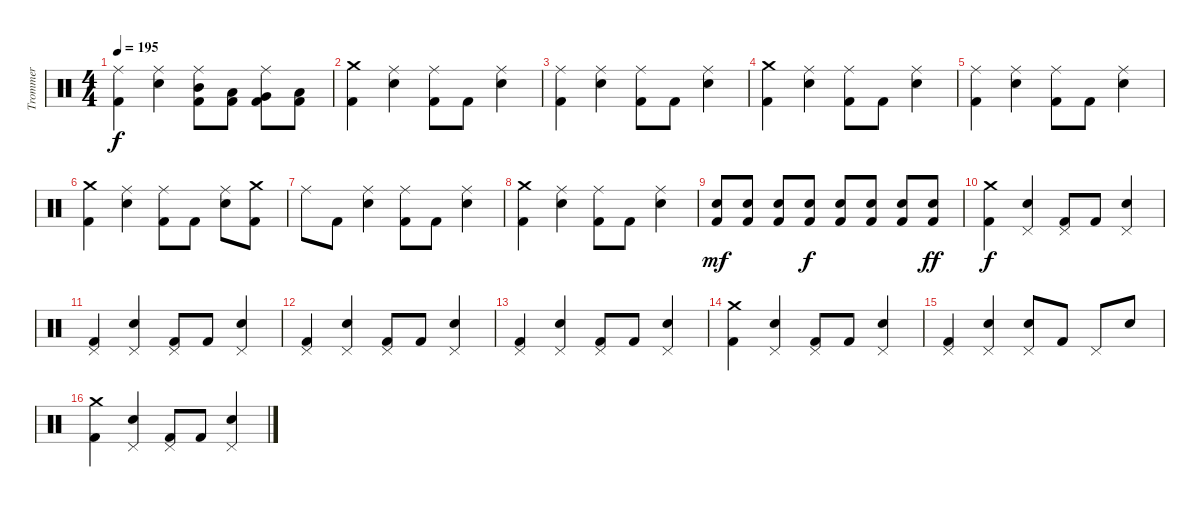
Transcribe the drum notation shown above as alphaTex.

\track ("Trommer" "Trommer") {instrument percussion}
\staff {score}
\articulation defaults
\ts (4 4)
\tempo 195
\clef neutral
\ks c
("Ride (middle)" "Kick (hit) 2").4{dy f} ("Ride (middle)" "Snare (hit) 2").4 ("Ride (middle)" "Mid Tom (hit)" "Kick (hit) 2").8 ("Kick (hit) 2" "Low Tom (hit)").8 ("Ride (middle)" "Kick (hit) 2" "Very Low Tom (hit)").8 ("Kick (hit) 2" "Low Floor Tom (hit)").8 |
("Kick (hit) 2" "Crash medium (hit)").4 ("Ride (middle)" "Snare (hit) 2").4 ("Ride (middle)" "Kick (hit) 2").8 "Kick (hit) 2".8 ("Ride (middle)" "Snare (hit) 2").4 |
("Ride (middle)" "Kick (hit) 2").4 ("Ride (middle)" "Snare (hit) 2").4 ("Ride (middle)" "Kick (hit) 2").8 "Kick (hit) 2".8 ("Ride (middle)" "Snare (hit) 2").4 |
("Kick (hit) 2" "Crash medium (hit)").4 ("Ride (middle)" "Snare (hit) 2").4 ("Ride (middle)" "Kick (hit) 2").8 "Kick (hit) 2".8 ("Ride (middle)" "Snare (hit) 2").4 |
("Ride (middle)" "Kick (hit) 2").4 ("Ride (middle)" "Snare (hit) 2").4 ("Ride (middle)" "Kick (hit) 2").8 "Kick (hit) 2".8 ("Ride (middle)" "Snare (hit) 2").4 |
("Crash medium (hit)" "Kick (hit) 2").4 ("Ride (middle)" "Snare (hit) 2").4 ("Ride (middle)" "Kick (hit) 2").8 "Kick (hit) 2".8 ("Ride (middle)" "Snare (hit) 2").8 ("Kick (hit) 2" "Crash medium (hit)").8 |
"Ride (middle)".8 "Kick (hit) 2".8 ("Ride (middle)" "Snare (hit) 2").4 ("Ride (middle)" "Kick (hit) 2").8 "Kick (hit) 2".8 ("Ride (middle)" "Snare (hit) 2").4 |
("Kick (hit) 2" "Crash medium (hit)").4 ("Ride (middle)" "Snare (hit) 2").4 ("Ride (middle)" "Kick (hit) 2").8 "Kick (hit) 2".8 ("Ride (middle)" "Snare (hit) 2").4 |
("Kick (hit) 2" "Snare (hit) 2").8{dy mf} ("Kick (hit) 2" "Snare (hit) 2").8 ("Kick (hit) 2" "Snare (hit) 2").8 ("Kick (hit) 2" "Snare (hit) 2").8{dy f} ("Kick (hit) 2" "Snare (hit) 2").8 ("Kick (hit) 2" "Snare (hit) 2").8 ("Kick (hit) 2" "Snare (hit) 2").8 ("Kick (hit) 2" "Snare (hit) 2").8{dy ff} |
("Crash medium (hit)" "Kick (hit) 2").4{dy f} ("Pedal Hi-Hat (hit)" "Snare (hit) 2").4 ("Pedal Hi-Hat (hit)" "Kick (hit) 2").8 "Kick (hit) 2".8 ("Pedal Hi-Hat (hit)" "Snare (hit) 2").4 |
("Pedal Hi-Hat (hit)" "Kick (hit) 2").4 ("Pedal Hi-Hat (hit)" "Snare (hit) 2").4 ("Pedal Hi-Hat (hit)" "Kick (hit) 2").8 "Kick (hit) 2".8 ("Pedal Hi-Hat (hit)" "Snare (hit) 2").4 |
("Pedal Hi-Hat (hit)" "Kick (hit) 2").4 ("Pedal Hi-Hat (hit)" "Snare (hit) 2").4 ("Pedal Hi-Hat (hit)" "Kick (hit) 2").8 "Kick (hit) 2".8 ("Pedal Hi-Hat (hit)" "Snare (hit) 2").4 |
("Pedal Hi-Hat (hit)" "Kick (hit) 2").4 ("Pedal Hi-Hat (hit)" "Snare (hit) 2").4 ("Pedal Hi-Hat (hit)" "Kick (hit) 2").8 "Kick (hit) 2".8 ("Pedal Hi-Hat (hit)" "Snare (hit) 2").4 |
("Kick (hit) 2" "Crash medium (hit)").4 ("Pedal Hi-Hat (hit)" "Snare (hit) 2").4 ("Pedal Hi-Hat (hit)" "Kick (hit) 2").8 "Kick (hit) 2".8 ("Pedal Hi-Hat (hit)" "Snare (hit) 2").4 |
("Pedal Hi-Hat (hit)" "Kick (hit) 2").4 ("Pedal Hi-Hat (hit)" "Snare (hit) 2").4 ("Pedal Hi-Hat (hit)" "Snare (hit) 2").8 "Kick (hit) 2".8 "Pedal Hi-Hat (hit)".8 "Snare (hit) 2".8 |
("Kick (hit) 2" "Crash medium (hit)").4 ("Pedal Hi-Hat (hit)" "Snare (hit) 2").4 ("Pedal Hi-Hat (hit)" "Kick (hit) 2").8 "Kick (hit) 2".8 ("Pedal Hi-Hat (hit)" "Snare (hit) 2").4
